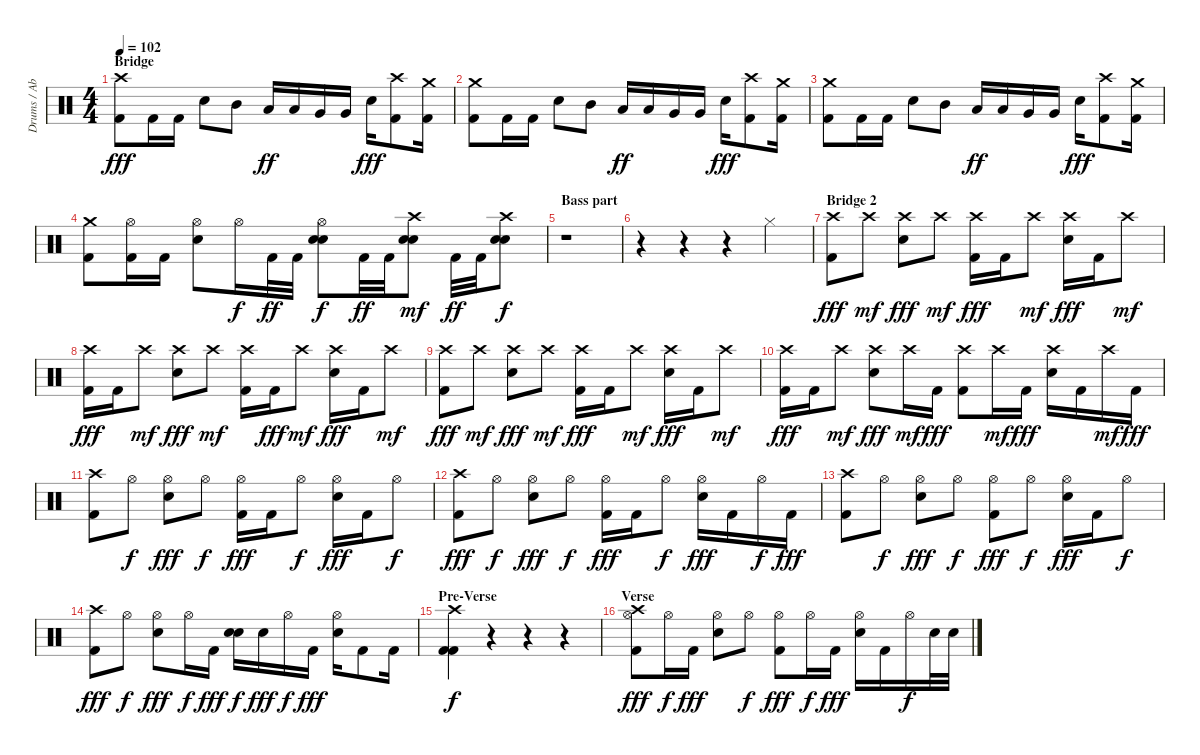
\track ("Drums / Abe Cunningham" "Drums / Ab") {instrument percussion}
\staff {score}
\articulation defaults
\ts (4 4)
\section ("" "Bridge")
\tempo 102
\clef neutral
\ks c
("Crash high (hit)" "Kick (hit) 2").8{dy fff} "Kick (hit) 2".16 "Kick (hit) 2".16 "Electric Snare (hit)".8 "Mid Tom (hit)".8 "Low Tom (hit)".16{dy ff} "Low Tom (hit)".16 "Very Low Tom (hit)".16 "Very Low Tom (hit)".16 "Electric Snare (hit)".16{dy fff} ("Crash high (hit)" "Kick (hit) 2").8 ("Crash medium (hit)" "Kick (hit) 2").16 |
("Crash medium (hit)" "Kick (hit) 2").8 "Kick (hit) 2".16 "Kick (hit) 2".16 "Electric Snare (hit)".8 "Mid Tom (hit)".8 "Low Tom (hit)".16{dy ff} "Low Tom (hit)".16 "Very Low Tom (hit)".16 "Very Low Tom (hit)".16 "Electric Snare (hit)".16{dy fff} ("Crash high (hit)" "Kick (hit) 2").8 ("Crash medium (hit)" "Kick (hit) 2").16 |
("Crash medium (hit)" "Kick (hit) 2").8 "Kick (hit) 2".16 "Kick (hit) 2".16 "Electric Snare (hit)".8 "Mid Tom (hit)".8 "Low Tom (hit)".16{dy ff} "Low Tom (hit)".16 "Very Low Tom (hit)".16 "Very Low Tom (hit)".16 "Electric Snare (hit)".16{dy fff} ("Crash high (hit)" "Kick (hit) 2").8 ("Crash medium (hit)" "Kick (hit) 2").16 |
("Crash medium (hit)" "Kick (hit) 2").8 ("Hi-Hat (open)" "Kick (hit) 2").16 "Kick (hit) 2".16 ("Hi-Hat (open)" "Electric Snare (hit)").8 "Hi-Hat (open)".16{dy f} "Kick (hit) 2".32{dy ff} "Kick (hit) 2".32 ("Hi-Hat (open)" "Electric Snare (hit)" "Electric Snare (hit)").8{dy f} "Kick (hit) 2".32{dy ff} "Kick (hit) 2".32 ("Crash high (hit)" "Electric Snare (hit)" "Electric Snare (hit)").8{dy mf} "Kick (hit) 2".32{dy ff} "Kick (hit) 2".32 ("Crash high (hit)" "Electric Snare (hit)" "Electric Snare (hit)").8{dy f} |
\section ("" "Bass part")
r.1 |
r.4 r.4 r.4 "Hi-Hat (closed)".4 |
\section ("" "Bridge 2")
("Crash high (hit)" "Kick (hit) 2").8{dy fff} "Crash high (hit)".8{dy mf} ("Crash high (hit)" "Electric Snare (hit)").8{dy fff} "Crash high (hit)".8{dy mf} ("Crash high (hit)" "Kick (hit) 2").16{dy fff} "Kick (hit) 2".16 "Crash high (hit)".8{dy mf} ("Crash high (hit)" "Electric Snare (hit)").16{dy fff} "Kick (hit) 2".16 "Crash high (hit)".8{dy mf} |
("Crash high (hit)" "Kick (hit) 2").16{dy fff} "Kick (hit) 2".16 "Crash high (hit)".8{dy mf} ("Crash high (hit)" "Electric Snare (hit)").8{dy fff} "Crash high (hit)".8{dy mf} ("Crash high (hit)" "Kick (hit) 2").16 "Kick (hit) 2".16{dy fff} "Crash high (hit)".8{dy mf} ("Crash high (hit)" "Electric Snare (hit)").16{dy fff} "Kick (hit) 2".16 "Crash high (hit)".8{dy mf} |
("Crash high (hit)" "Kick (hit) 2").8{dy fff} "Crash high (hit)".8{dy mf} ("Crash high (hit)" "Electric Snare (hit)").8{dy fff} "Crash high (hit)".8{dy mf} ("Crash high (hit)" "Kick (hit) 2").16{dy fff} "Kick (hit) 2".16 "Crash high (hit)".8{dy mf} ("Crash high (hit)" "Electric Snare (hit)").16{dy fff} "Kick (hit) 2".16 "Crash high (hit)".8{dy mf} |
("Crash high (hit)" "Kick (hit) 2").16{dy fff} "Kick (hit) 2".16 "Crash high (hit)".8{dy mf} ("Crash high (hit)" "Electric Snare (hit)").8{dy fff} "Crash high (hit)".16{dy mf} "Kick (hit) 2".16{dy fff} ("Crash high (hit)" "Kick (hit) 2").8 "Crash high (hit)".16{dy mf} "Kick (hit) 2".16{dy fff} ("Crash high (hit)" "Electric Snare (hit)").16 "Kick (hit) 2".16 "Crash high (hit)".16{dy mf} "Kick (hit) 2".16{dy fff} |
("Crash high (hit)" "Kick (hit) 2").8 "Hi-Hat (open)".8{dy f} ("Hi-Hat (open)" "Electric Snare (hit)").8{dy fff} "Hi-Hat (open)".8{dy f} ("Hi-Hat (open)" "Kick (hit) 2").16{dy fff} "Kick (hit) 2".16 "Hi-Hat (open)".8{dy f} ("Hi-Hat (open)" "Electric Snare (hit)").16{dy fff} "Kick (hit) 2".16 "Hi-Hat (open)".8{dy f} |
("Crash high (hit)" "Kick (hit) 2").8{dy fff} "Hi-Hat (open)".8{dy f} ("Hi-Hat (open)" "Electric Snare (hit)").8{dy fff} "Hi-Hat (open)".8{dy f} ("Hi-Hat (open)" "Kick (hit) 2").16{dy fff} "Kick (hit) 2".16 "Hi-Hat (open)".8{dy f} ("Hi-Hat (open)" "Electric Snare (hit)").16{dy fff} "Kick (hit) 2".16 "Hi-Hat (open)".16{dy f} "Kick (hit) 2".16{dy fff} |
("Crash high (hit)" "Kick (hit) 2").8 "Hi-Hat (open)".8{dy f} ("Hi-Hat (open)" "Electric Snare (hit)").8{dy fff} "Hi-Hat (open)".8{dy f} ("Hi-Hat (open)" "Kick (hit) 2").8{dy fff} "Hi-Hat (open)".8{dy f} ("Hi-Hat (open)" "Electric Snare (hit)").16{dy fff} "Kick (hit) 2".16 "Hi-Hat (open)".8{dy f} |
("Crash high (hit)" "Kick (hit) 2").8{dy fff} "Hi-Hat (open)".8{dy f} ("Hi-Hat (open)" "Electric Snare (hit)").8{dy fff} "Hi-Hat (open)".16{dy f} "Kick (hit) 2".16{dy fff} ("Electric Snare (hit)" "Electric Snare (hit)").16{dy f} "Electric Snare (hit)".16{dy fff} "Hi-Hat (open)".16{dy f} "Kick (hit) 2".16{dy fff} ("Hi-Hat (open)" "Electric Snare (hit)").16 "Kick (hit) 2".8 "Kick (hit) 2".16 |
\section ("" "Pre-Verse")
("Crash high (hit)" "Kick (hit) 2" "Kick (hit) 2").4{dy f} r.4 r.4 r.4 |
\section ("" "Verse")
("Crash high (hit)" "Hi-Hat (open)" "Kick (hit) 2").8{dy fff} "Hi-Hat (open)".16{dy f} "Kick (hit) 2".16{dy fff} ("Hi-Hat (open)" "Electric Snare (hit)").8 "Hi-Hat (open)".8{dy f} ("Hi-Hat (open)" "Kick (hit) 2").8{dy fff} "Hi-Hat (open)".16{dy f} "Kick (hit) 2".16{dy fff} ("Hi-Hat (open)" "Electric Snare (hit)").16 "Kick (hit) 2".16 "Hi-Hat (open)".16{dy f} "Electric Snare (hit)".32 "Electric Snare (hit)".32
